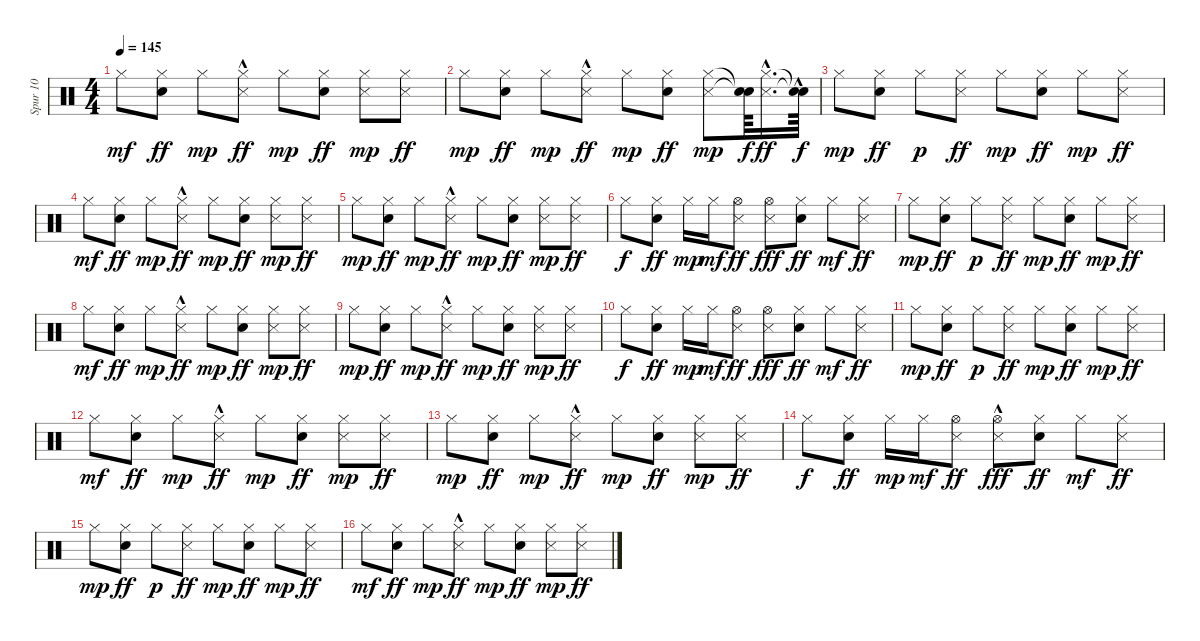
\track ("Spur 10" "Spur 10") {instrument percussion}
\staff {score}
\articulation defaults
\ts (4 4)
\tempo 145
\clef neutral
\ks c "Hi-Hat (closed)".8{dy mf}
("Electric Snare (hit)" "Hi-Hat (closed)").8{dy ff} "Hi-Hat (closed)".8{dy mp} ("Metronome (hit)"{hac} "Hi-Hat (closed)").8{dy ff} "Hi-Hat (closed)".8{dy mp} ("Electric Snare (hit)" "Hi-Hat (closed)").8{dy ff} ("Metronome (hit)" "Hi-Hat (closed)").8{dy mp} ("Metronome (hit)" "Hi-Hat (closed)").8{dy ff} |
"Hi-Hat (closed)".8{dy mp} ("Electric Snare (hit)" "Hi-Hat (closed)").8{dy ff} "Hi-Hat (closed)".8{dy mp} ("Metronome (hit)"{hac} "Hi-Hat (closed)").8{dy ff} "Hi-Hat (closed)".8{dy mp} ("Electric Snare (hit)" "Hi-Hat (closed)").8{dy ff} ("Metronome (hit)" "Hi-Hat (closed)").8{dy mp} ("Snare (hit)"{t} "Snare (hit)"{t}).64{dy f} ("Metronome (hit)"{hac} "Hi-Hat (closed)"{hac}).16{d dy ff} ("Snare (hit)"{hac t} "Snare (hit)"{t}).64{dy f} |
"Hi-Hat (closed)".8{dy mp} ("Electric Snare (hit)" "Hi-Hat (closed)").8{dy ff} "Hi-Hat (closed)".8{dy p} ("Metronome (hit)" "Hi-Hat (closed)").8{dy ff} "Hi-Hat (closed)".8{dy mp} ("Electric Snare (hit)" "Hi-Hat (closed)").8{dy ff} "Hi-Hat (closed)".8{dy mp} ("Metronome (hit)" "Hi-Hat (closed)").8{dy ff} |
"Hi-Hat (closed)".8{dy mf} ("Electric Snare (hit)" "Hi-Hat (closed)").8{dy ff} "Hi-Hat (closed)".8{dy mp} ("Metronome (hit)"{hac} "Hi-Hat (closed)").8{dy ff} "Hi-Hat (closed)".8{dy mp} ("Electric Snare (hit)" "Hi-Hat (closed)").8{dy ff} ("Metronome (hit)" "Hi-Hat (closed)").8{dy mp} ("Metronome (hit)" "Hi-Hat (closed)").8{dy ff} |
"Hi-Hat (closed)".8{dy mp} ("Electric Snare (hit)" "Hi-Hat (closed)").8{dy ff} "Hi-Hat (closed)".8{dy mp} ("Metronome (hit)"{hac} "Hi-Hat (closed)").8{dy ff} "Hi-Hat (closed)".8{dy mp} ("Electric Snare (hit)" "Hi-Hat (closed)").8{dy ff} ("Metronome (hit)" "Hi-Hat (closed)").8{dy mp} ("Metronome (hit)" "Hi-Hat (closed)").8{dy ff} |
"Hi-Hat (closed)".8{dy f} ("Electric Snare (hit)" "Hi-Hat (closed)").8{dy ff} "Hi-Hat (closed)".16{dy mp} "Hi-Hat (closed)".16{dy mf} ("Metronome (hit)" "Hi-Hat (open)").8{dy ff} ("Metronome (hit)" "Hi-Hat (open)").8{dy fff} ("Electric Snare (hit)" "Hi-Hat (closed)").8{dy ff} "Hi-Hat (closed)".8{dy mf} ("Metronome (hit)" "Hi-Hat (closed)").8{dy ff} |
"Hi-Hat (closed)".8{dy mp} ("Electric Snare (hit)" "Hi-Hat (closed)").8{dy ff} "Hi-Hat (closed)".8{dy p} ("Metronome (hit)" "Hi-Hat (closed)").8{dy ff} "Hi-Hat (closed)".8{dy mp} ("Electric Snare (hit)" "Hi-Hat (closed)").8{dy ff} "Hi-Hat (closed)".8{dy mp} ("Metronome (hit)" "Hi-Hat (closed)").8{dy ff} |
"Hi-Hat (closed)".8{dy mf} ("Electric Snare (hit)" "Hi-Hat (closed)").8{dy ff} "Hi-Hat (closed)".8{dy mp} ("Metronome (hit)"{hac} "Hi-Hat (closed)").8{dy ff} "Hi-Hat (closed)".8{dy mp} ("Electric Snare (hit)" "Hi-Hat (closed)").8{dy ff} ("Metronome (hit)" "Hi-Hat (closed)").8{dy mp} ("Metronome (hit)" "Hi-Hat (closed)").8{dy ff} |
"Hi-Hat (closed)".8{dy mp} ("Electric Snare (hit)" "Hi-Hat (closed)").8{dy ff} "Hi-Hat (closed)".8{dy mp} ("Metronome (hit)"{hac} "Hi-Hat (closed)").8{dy ff} "Hi-Hat (closed)".8{dy mp} ("Electric Snare (hit)" "Hi-Hat (closed)").8{dy ff} ("Metronome (hit)" "Hi-Hat (closed)").8{dy mp} ("Metronome (hit)" "Hi-Hat (closed)").8{dy ff} |
"Hi-Hat (closed)".8{dy f} ("Electric Snare (hit)" "Hi-Hat (closed)").8{dy ff} "Hi-Hat (closed)".16{dy mp} "Hi-Hat (closed)".16{dy mf} ("Metronome (hit)" "Hi-Hat (open)").8{dy ff} ("Metronome (hit)" "Hi-Hat (open)").8{dy fff} ("Electric Snare (hit)" "Hi-Hat (closed)").8{dy ff} "Hi-Hat (closed)".8{dy mf} ("Metronome (hit)" "Hi-Hat (closed)").8{dy ff} |
"Hi-Hat (closed)".8{dy mp} ("Electric Snare (hit)" "Hi-Hat (closed)").8{dy ff} "Hi-Hat (closed)".8{dy p} ("Metronome (hit)" "Hi-Hat (closed)").8{dy ff} "Hi-Hat (closed)".8{dy mp} ("Electric Snare (hit)" "Hi-Hat (closed)").8{dy ff} "Hi-Hat (closed)".8{dy mp} ("Metronome (hit)" "Hi-Hat (closed)").8{dy ff} |
"Hi-Hat (closed)".8{dy mf} ("Electric Snare (hit)" "Hi-Hat (closed)").8{dy ff} "Hi-Hat (closed)".8{dy mp} ("Metronome (hit)"{hac} "Hi-Hat (closed)").8{dy ff} "Hi-Hat (closed)".8{dy mp} ("Electric Snare (hit)" "Hi-Hat (closed)").8{dy ff} ("Metronome (hit)" "Hi-Hat (closed)").8{dy mp} ("Metronome (hit)" "Hi-Hat (closed)").8{dy ff} |
"Hi-Hat (closed)".8{dy mp} ("Electric Snare (hit)" "Hi-Hat (closed)").8{dy ff} "Hi-Hat (closed)".8{dy mp} ("Metronome (hit)"{hac} "Hi-Hat (closed)").8{dy ff} "Hi-Hat (closed)".8{dy mp} ("Electric Snare (hit)" "Hi-Hat (closed)").8{dy ff} ("Metronome (hit)" "Hi-Hat (closed)").8{dy mp} ("Metronome (hit)" "Hi-Hat (closed)").8{dy ff} |
"Hi-Hat (closed)".8{dy f} ("Electric Snare (hit)" "Hi-Hat (closed)").8{dy ff} "Hi-Hat (closed)".16{dy mp} "Hi-Hat (closed)".16{dy mf} ("Metronome (hit)" "Hi-Hat (open)").8{dy ff} ("Metronome (hit)"{hac} "Hi-Hat (open)").8{dy fff} ("Electric Snare (hit)" "Hi-Hat (closed)").8{dy ff} "Hi-Hat (closed)".8{dy mf} ("Metronome (hit)" "Hi-Hat (closed)").8{dy ff} |
"Hi-Hat (closed)".8{dy mp} ("Electric Snare (hit)" "Hi-Hat (closed)").8{dy ff} "Hi-Hat (closed)".8{dy p} ("Metronome (hit)" "Hi-Hat (closed)").8{dy ff} "Hi-Hat (closed)".8{dy mp} ("Electric Snare (hit)" "Hi-Hat (closed)").8{dy ff} "Hi-Hat (closed)".8{dy mp} ("Metronome (hit)" "Hi-Hat (closed)").8{dy ff} |
"Hi-Hat (closed)".8{dy mf} ("Electric Snare (hit)" "Hi-Hat (closed)").8{dy ff} "Hi-Hat (closed)".8{dy mp} ("Metronome (hit)"{hac} "Hi-Hat (closed)").8{dy ff} "Hi-Hat (closed)".8{dy mp} ("Electric Snare (hit)" "Hi-Hat (closed)").8{dy ff} ("Metronome (hit)" "Hi-Hat (closed)").8{dy mp} ("Metronome (hit)" "Hi-Hat (closed)").8{dy ff}
